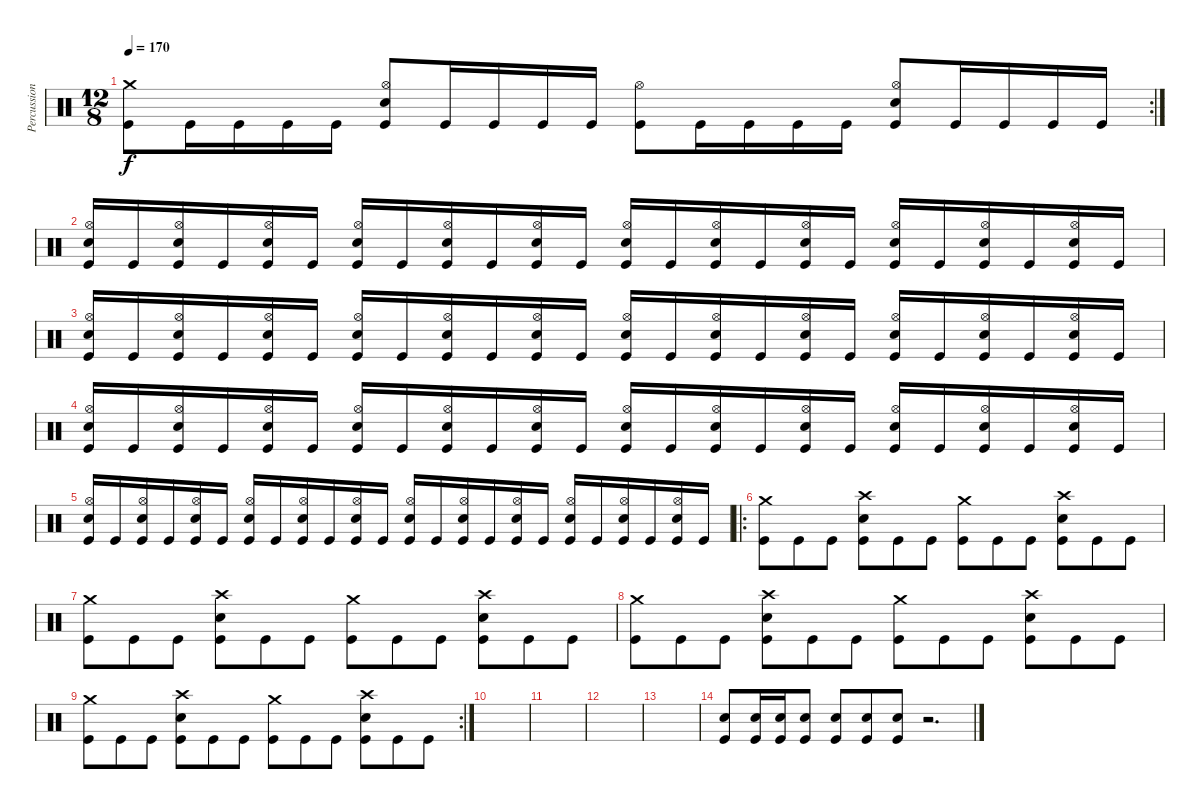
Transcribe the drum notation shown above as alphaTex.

\track ("Percussion" "Percussion") {instrument percussion}
\staff {score}
\articulation defaults
\rc 2
\ts (12 8)
\tempo 170
\clef neutral
\ks c
("Crash medium (hit)" "Kick (hit)").8{dy f} "Kick (hit)".16 "Kick (hit)".16 "Kick (hit)".16 "Kick (hit)".16 ("Hi-Hat (open)" "Snare (hit) 2" "Kick (hit)").8 "Kick (hit)".16 "Kick (hit)".16 "Kick (hit)".16 "Kick (hit)".16 ("Hi-Hat (open)" "Kick (hit)").8 "Kick (hit)".16 "Kick (hit)".16 "Kick (hit)".16 "Kick (hit)".16 ("Hi-Hat (open)" "Snare (hit) 2" "Kick (hit)").8 "Kick (hit)".16 "Kick (hit)".16 "Kick (hit)".16 "Kick (hit)".16 |
("Hi-Hat (open)" "Snare (hit) 2" "Kick (hit)").16 "Kick (hit)".16 ("Hi-Hat (open)" "Snare (hit) 2" "Kick (hit)").16 "Kick (hit)".16 ("Hi-Hat (open)" "Snare (hit) 2" "Kick (hit)").16 "Kick (hit)".16 ("Hi-Hat (open)" "Snare (hit) 2" "Kick (hit)").16 "Kick (hit)".16 ("Hi-Hat (open)" "Snare (hit) 2" "Kick (hit)").16 "Kick (hit)".16 ("Hi-Hat (open)" "Snare (hit) 2" "Kick (hit)").16 "Kick (hit)".16 ("Hi-Hat (open)" "Snare (hit) 2" "Kick (hit)").16 "Kick (hit)".16 ("Hi-Hat (open)" "Snare (hit) 2" "Kick (hit)").16 "Kick (hit)".16 ("Hi-Hat (open)" "Snare (hit) 2" "Kick (hit)").16 "Kick (hit)".16 ("Hi-Hat (open)" "Snare (hit) 2" "Kick (hit)").16 "Kick (hit)".16 ("Hi-Hat (open)" "Snare (hit) 2" "Kick (hit)").16 "Kick (hit)".16 ("Hi-Hat (open)" "Snare (hit) 2" "Kick (hit)").16 "Kick (hit)".16 |
("Hi-Hat (open)" "Snare (hit) 2" "Kick (hit)").16 "Kick (hit)".16 ("Hi-Hat (open)" "Snare (hit) 2" "Kick (hit)").16 "Kick (hit)".16 ("Hi-Hat (open)" "Snare (hit) 2" "Kick (hit)").16 "Kick (hit)".16 ("Hi-Hat (open)" "Snare (hit) 2" "Kick (hit)").16 "Kick (hit)".16 ("Hi-Hat (open)" "Snare (hit) 2" "Kick (hit)").16 "Kick (hit)".16 ("Hi-Hat (open)" "Snare (hit) 2" "Kick (hit)").16 "Kick (hit)".16 ("Hi-Hat (open)" "Snare (hit) 2" "Kick (hit)").16 "Kick (hit)".16 ("Hi-Hat (open)" "Snare (hit) 2" "Kick (hit)").16 "Kick (hit)".16 ("Hi-Hat (open)" "Snare (hit) 2" "Kick (hit)").16 "Kick (hit)".16 ("Hi-Hat (open)" "Snare (hit) 2" "Kick (hit)").16 "Kick (hit)".16 ("Hi-Hat (open)" "Snare (hit) 2" "Kick (hit)").16 "Kick (hit)".16 ("Hi-Hat (open)" "Snare (hit) 2" "Kick (hit)").16 "Kick (hit)".16 |
("Hi-Hat (open)" "Snare (hit) 2" "Kick (hit)").16 "Kick (hit)".16 ("Hi-Hat (open)" "Snare (hit) 2" "Kick (hit)").16 "Kick (hit)".16 ("Hi-Hat (open)" "Snare (hit) 2" "Kick (hit)").16 "Kick (hit)".16 ("Hi-Hat (open)" "Snare (hit) 2" "Kick (hit)").16 "Kick (hit)".16 ("Hi-Hat (open)" "Snare (hit) 2" "Kick (hit)").16 "Kick (hit)".16 ("Hi-Hat (open)" "Snare (hit) 2" "Kick (hit)").16 "Kick (hit)".16 ("Hi-Hat (open)" "Snare (hit) 2" "Kick (hit)").16 "Kick (hit)".16 ("Hi-Hat (open)" "Snare (hit) 2" "Kick (hit)").16 "Kick (hit)".16 ("Hi-Hat (open)" "Snare (hit) 2" "Kick (hit)").16 "Kick (hit)".16 ("Hi-Hat (open)" "Snare (hit) 2" "Kick (hit)").16 "Kick (hit)".16 ("Hi-Hat (open)" "Snare (hit) 2" "Kick (hit)").16 "Kick (hit)".16 ("Hi-Hat (open)" "Snare (hit) 2" "Kick (hit)").16 "Kick (hit)".16 |
("Hi-Hat (open)" "Snare (hit) 2" "Kick (hit)").16 "Kick (hit)".16 ("Hi-Hat (open)" "Snare (hit) 2" "Kick (hit)").16 "Kick (hit)".16 ("Hi-Hat (open)" "Snare (hit) 2" "Kick (hit)").16 "Kick (hit)".16 ("Hi-Hat (open)" "Snare (hit) 2" "Kick (hit)").16 "Kick (hit)".16 ("Hi-Hat (open)" "Snare (hit) 2" "Kick (hit)").16 "Kick (hit)".16 ("Hi-Hat (open)" "Snare (hit) 2" "Kick (hit)").16 "Kick (hit)".16 ("Hi-Hat (open)" "Snare (hit) 2" "Kick (hit)").16 "Kick (hit)".16 ("Hi-Hat (open)" "Snare (hit) 2" "Kick (hit)").16 "Kick (hit)".16 ("Hi-Hat (open)" "Snare (hit) 2" "Kick (hit)").16 "Kick (hit)".16 ("Hi-Hat (open)" "Snare (hit) 2" "Kick (hit)").16 "Kick (hit)".16 ("Hi-Hat (open)" "Snare (hit) 2" "Kick (hit)").16 "Kick (hit)".16 ("Hi-Hat (open)" "Snare (hit) 2" "Kick (hit)").16 "Kick (hit)".16 |
\ro
("Crash medium (hit)" "Kick (hit)").8 "Kick (hit)".8 "Kick (hit)".8 ("Crash high (hit)" "Snare (hit) 2" "Kick (hit)").8 "Kick (hit)".8 "Kick (hit)".8 ("Crash medium (hit)" "Kick (hit)").8 "Kick (hit)".8 "Kick (hit)".8 ("Crash high (hit)" "Snare (hit) 2" "Kick (hit)").8 "Kick (hit)".8 "Kick (hit)".8 |
("Crash medium (hit)" "Kick (hit)").8 "Kick (hit)".8 "Kick (hit)".8 ("Crash high (hit)" "Snare (hit) 2" "Kick (hit)").8 "Kick (hit)".8 "Kick (hit)".8 ("Crash medium (hit)" "Kick (hit)").8 "Kick (hit)".8 "Kick (hit)".8 ("Crash high (hit)" "Snare (hit) 2" "Kick (hit)").8 "Kick (hit)".8 "Kick (hit)".8 |
("Crash medium (hit)" "Kick (hit)").8 "Kick (hit)".8 "Kick (hit)".8 ("Crash high (hit)" "Snare (hit) 2" "Kick (hit)").8 "Kick (hit)".8 "Kick (hit)".8 ("Crash medium (hit)" "Kick (hit)").8 "Kick (hit)".8 "Kick (hit)".8 ("Crash high (hit)" "Snare (hit) 2" "Kick (hit)").8 "Kick (hit)".8 "Kick (hit)".8 |
\rc 2
("Crash medium (hit)" "Kick (hit)").8 "Kick (hit)".8 "Kick (hit)".8 ("Crash high (hit)" "Snare (hit) 2" "Kick (hit)").8 "Kick (hit)".8 "Kick (hit)".8 ("Crash medium (hit)" "Kick (hit)").8 "Kick (hit)".8 "Kick (hit)".8 ("Crash high (hit)" "Snare (hit) 2" "Kick (hit)").8 "Kick (hit)".8 "Kick (hit)".8 |
|
|
|
|
("Snare (hit) 2" "Kick (hit)").8 ("Snare (hit) 2" "Kick (hit)").16 ("Snare (hit) 2" "Kick (hit)").16 ("Snare (hit) 2" "Kick (hit)").8 ("Snare (hit) 2" "Kick (hit)").8 ("Snare (hit) 2" "Kick (hit)").8 ("Snare (hit) 2" "Kick (hit)").8 r.2{d}
